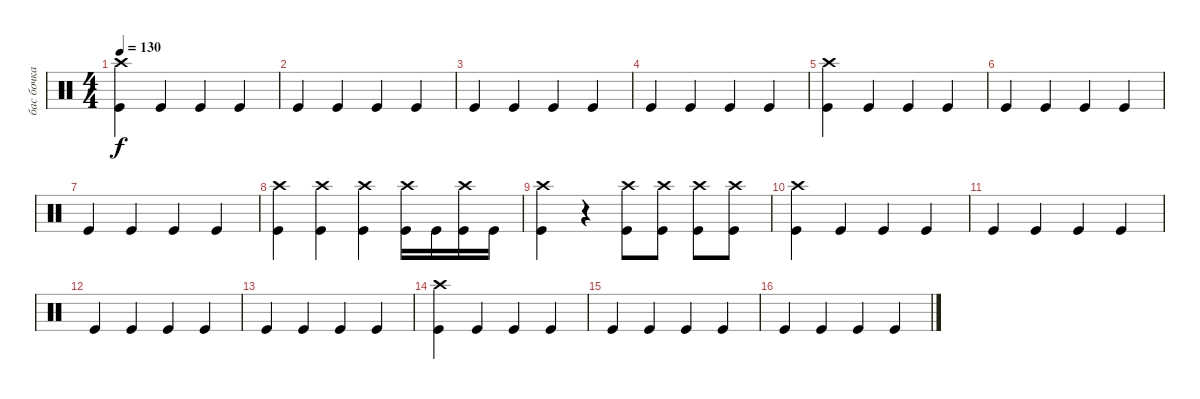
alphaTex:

\track ("бас бочка" "бас бочка") {instrument percussion}
\staff {score}
\articulation defaults
\ts (4 4)
\tempo 130
\clef neutral
\ks c
("Crash high (hit)" "Kick (hit)").4{dy f} "Kick (hit)".4 "Kick (hit)".4 "Kick (hit)".4 |
"Kick (hit)".4 "Kick (hit)".4 "Kick (hit)".4 "Kick (hit)".4 |
"Kick (hit)".4 "Kick (hit)".4 "Kick (hit)".4 "Kick (hit)".4 |
"Kick (hit)".4 "Kick (hit)".4 "Kick (hit)".4 "Kick (hit)".4 |
("Crash high (hit)" "Kick (hit)").4 "Kick (hit)".4 "Kick (hit)".4 "Kick (hit)".4 |
"Kick (hit)".4 "Kick (hit)".4 "Kick (hit)".4 "Kick (hit)".4 |
"Kick (hit)".4 "Kick (hit)".4 "Kick (hit)".4 "Kick (hit)".4 |
("Crash high (hit)" "Kick (hit)").4 ("Crash high (hit)" "Kick (hit)").4 ("Crash high (hit)" "Kick (hit)").4 ("Crash high (hit)" "Kick (hit)").16 "Kick (hit)".16 ("Crash high (hit)" "Kick (hit)").16 "Kick (hit)".16 |
("Crash high (hit)" "Kick (hit)").4 r.4 ("Crash high (hit)" "Kick (hit)").8 ("Crash high (hit)" "Kick (hit)").8 ("Crash high (hit)" "Kick (hit)").8 ("Crash high (hit)" "Kick (hit)").8 |
("Crash high (hit)" "Kick (hit)").4 "Kick (hit)".4 "Kick (hit)".4 "Kick (hit)".4 |
"Kick (hit)".4 "Kick (hit)".4 "Kick (hit)".4 "Kick (hit)".4 |
"Kick (hit)".4 "Kick (hit)".4 "Kick (hit)".4 "Kick (hit)".4 |
"Kick (hit)".4 "Kick (hit)".4 "Kick (hit)".4 "Kick (hit)".4 |
("Crash high (hit)" "Kick (hit)").4 "Kick (hit)".4 "Kick (hit)".4 "Kick (hit)".4 |
"Kick (hit)".4 "Kick (hit)".4 "Kick (hit)".4 "Kick (hit)".4 |
"Kick (hit)".4 "Kick (hit)".4 "Kick (hit)".4 "Kick (hit)".4
